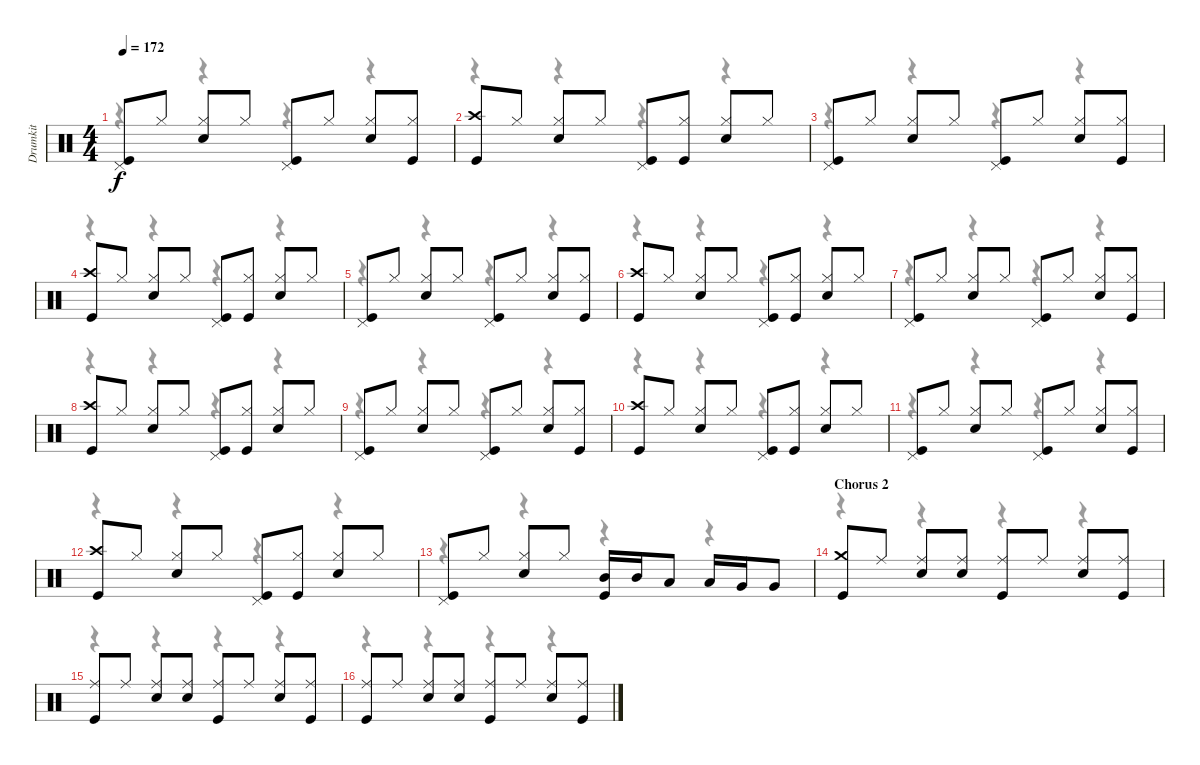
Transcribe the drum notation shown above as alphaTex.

\track ("Drumkit" "Drumkit") {instrument percussion}
\staff {score}
\articulation defaults
\voice
\ts (4 4)
\tempo 172
\clef neutral
\ks c
("Pedal Hi-Hat (hit)" "Kick (hit)").8{dy f} "Hi-Hat (closed)".8 ("Hi-Hat (closed)" "Snare (hit) 2").8 "Hi-Hat (closed)".8 ("Pedal Hi-Hat (hit)" "Kick (hit)").8 "Hi-Hat (closed)".8 ("Hi-Hat (closed)" "Snare (hit) 2").8 ("Hi-Hat (closed)" "Kick (hit)").8 |
("Crash high (hit)" "Kick (hit)").8 "Hi-Hat (closed)".8 ("Hi-Hat (closed)" "Snare (hit) 2").8 "Hi-Hat (closed)".8 ("Pedal Hi-Hat (hit)" "Kick (hit)").8 ("Hi-Hat (closed)" "Kick (hit)").8 ("Hi-Hat (closed)" "Snare (hit) 2").8 "Hi-Hat (closed)".8 |
("Pedal Hi-Hat (hit)" "Kick (hit)").8 "Hi-Hat (closed)".8 ("Hi-Hat (closed)" "Snare (hit) 2").8 "Hi-Hat (closed)".8 ("Pedal Hi-Hat (hit)" "Kick (hit)").8 "Hi-Hat (closed)".8 ("Hi-Hat (closed)" "Snare (hit) 2").8 ("Hi-Hat (closed)" "Kick (hit)").8 |
("Crash high (hit)" "Kick (hit)").8 "Hi-Hat (closed)".8 ("Hi-Hat (closed)" "Snare (hit) 2").8 "Hi-Hat (closed)".8 ("Pedal Hi-Hat (hit)" "Kick (hit)").8 ("Hi-Hat (closed)" "Kick (hit)").8 ("Hi-Hat (closed)" "Snare (hit) 2").8 "Hi-Hat (closed)".8 |
("Pedal Hi-Hat (hit)" "Kick (hit)").8 "Hi-Hat (closed)".8 ("Hi-Hat (closed)" "Snare (hit) 2").8 "Hi-Hat (closed)".8 ("Pedal Hi-Hat (hit)" "Kick (hit)").8 "Hi-Hat (closed)".8 ("Hi-Hat (closed)" "Snare (hit) 2").8 ("Hi-Hat (closed)" "Kick (hit)").8 |
("Crash high (hit)" "Kick (hit)").8 "Hi-Hat (closed)".8 ("Hi-Hat (closed)" "Snare (hit) 2").8 "Hi-Hat (closed)".8 ("Pedal Hi-Hat (hit)" "Kick (hit)").8 ("Hi-Hat (closed)" "Kick (hit)").8 ("Hi-Hat (closed)" "Snare (hit) 2").8 "Hi-Hat (closed)".8 |
("Pedal Hi-Hat (hit)" "Kick (hit)").8 "Hi-Hat (closed)".8 ("Hi-Hat (closed)" "Snare (hit) 2").8 "Hi-Hat (closed)".8 ("Pedal Hi-Hat (hit)" "Kick (hit)").8 "Hi-Hat (closed)".8 ("Hi-Hat (closed)" "Snare (hit) 2").8 ("Hi-Hat (closed)" "Kick (hit)").8 |
("Crash high (hit)" "Kick (hit)").8 "Hi-Hat (closed)".8 ("Hi-Hat (closed)" "Snare (hit) 2").8 "Hi-Hat (closed)".8 ("Pedal Hi-Hat (hit)" "Kick (hit)").8 ("Hi-Hat (closed)" "Kick (hit)").8 ("Hi-Hat (closed)" "Snare (hit) 2").8 "Hi-Hat (closed)".8 |
("Pedal Hi-Hat (hit)" "Kick (hit)").8 "Hi-Hat (closed)".8 ("Hi-Hat (closed)" "Snare (hit) 2").8 "Hi-Hat (closed)".8 ("Pedal Hi-Hat (hit)" "Kick (hit)").8 "Hi-Hat (closed)".8 ("Hi-Hat (closed)" "Snare (hit) 2").8 ("Hi-Hat (closed)" "Kick (hit)").8 |
("Crash high (hit)" "Kick (hit)").8 "Hi-Hat (closed)".8 ("Hi-Hat (closed)" "Snare (hit) 2").8 "Hi-Hat (closed)".8 ("Pedal Hi-Hat (hit)" "Kick (hit)").8 ("Hi-Hat (closed)" "Kick (hit)").8 ("Hi-Hat (closed)" "Snare (hit) 2").8 "Hi-Hat (closed)".8 |
("Pedal Hi-Hat (hit)" "Kick (hit)").8 "Hi-Hat (closed)".8 ("Hi-Hat (closed)" "Snare (hit) 2").8 "Hi-Hat (closed)".8 ("Pedal Hi-Hat (hit)" "Kick (hit)").8 "Hi-Hat (closed)".8 ("Hi-Hat (closed)" "Snare (hit) 2").8 ("Hi-Hat (closed)" "Kick (hit)").8 |
("Crash high (hit)" "Kick (hit)").8 "Hi-Hat (closed)".8 ("Hi-Hat (closed)" "Snare (hit) 2").8 "Hi-Hat (closed)".8 ("Pedal Hi-Hat (hit)" "Kick (hit)").8 ("Hi-Hat (closed)" "Kick (hit)").8 ("Hi-Hat (closed)" "Snare (hit) 2").8 "Hi-Hat (closed)".8 |
("Pedal Hi-Hat (hit)" "Kick (hit)").8 "Hi-Hat (closed)".8 ("Hi-Hat (closed)" "Snare (hit) 2").8 "Hi-Hat (closed)".8 ("Mid Tom (hit)" "Kick (hit)").16 "Mid Tom (hit)".16 "Low Tom (hit)".8 "Low Tom (hit)".16 "Very Low Tom (hit)".16 "Very Low Tom (hit)".8 |
\section ("" "Chorus 2")
("Crash medium (hit)" "Kick (hit)").8 "Ride (middle)".8 ("Ride (middle)" "Snare (hit) 2").8 ("Ride (middle)" "Snare (hit) 2").8 ("Ride (middle)" "Kick (hit)").8 "Ride (middle)".8 ("Ride (middle)" "Snare (hit) 2").8 ("Ride (middle)" "Kick (hit)").8 |
("Ride (middle)" "Kick (hit)").8 "Ride (middle)".8 ("Ride (middle)" "Snare (hit) 2").8 ("Ride (middle)" "Snare (hit) 2").8 ("Ride (middle)" "Kick (hit)").8 "Ride (middle)".8 ("Ride (middle)" "Snare (hit) 2").8 ("Ride (middle)" "Kick (hit)").8 |
("Ride (middle)" "Kick (hit)").8 "Ride (middle)".8 ("Ride (middle)" "Snare (hit) 2").8 ("Ride (middle)" "Snare (hit) 2").8 ("Ride (middle)" "Kick (hit)").8 "Ride (middle)".8 ("Ride (middle)" "Snare (hit) 2").8 ("Ride (middle)" "Kick (hit)").8
\voice
\clef neutral
\ottava regular
\simile none
\ks c
r.4{dy f} r.4 r.4 r.4 |
r.4 r.4 r.4 r.4 |
r.4 r.4 r.4 r.4 |
r.4 r.4 r.4 r.4 |
r.4 r.4 r.4 r.4 |
r.4 r.4 r.4 r.4 |
r.4 r.4 r.4 r.4 |
r.4 r.4 r.4 r.4 |
r.4 r.4 r.4 r.4 |
r.4 r.4 r.4 r.4 |
r.4 r.4 r.4 r.4 |
r.4 r.4 r.4 r.4 |
r.4 r.4 r.4 r.4 |
r.4 r.4 r.4 r.4 |
r.4 r.4 r.4 r.4 |
r.4 r.4 r.4 r.4
